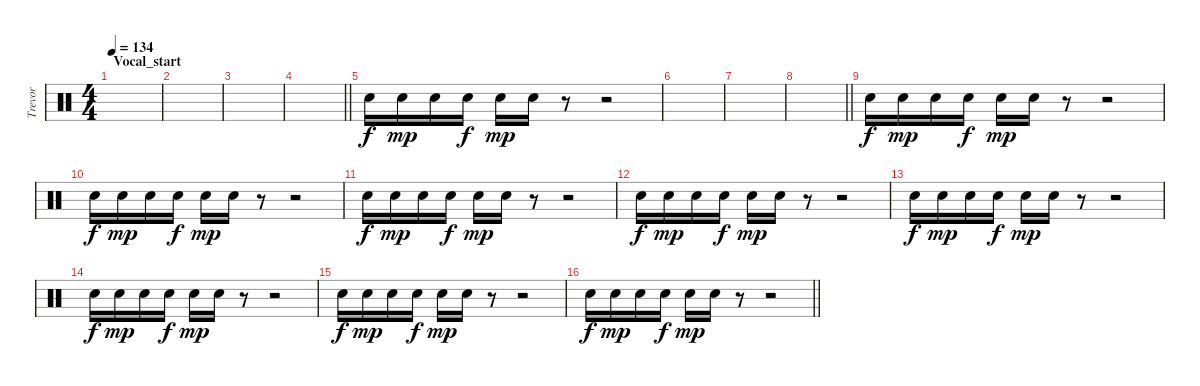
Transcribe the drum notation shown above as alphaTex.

\track ("Trevor" "Trevor") {instrument percussion}
\staff {score}
\articulation defaults
\ts (4 4)
\section ("" "Vocal_start")
\tempo 134
\clef neutral
\ks c
|
|
|
\barLineRight lightlight
|
"Snare (hit) 2".16{dy f} "Snare (hit) 2".16{dy mp} "Snare (hit) 2".16 "Snare (hit) 2".16{dy f} "Snare (hit) 2".16{dy mp} "Snare (hit) 2".16 r.8 r.2 |
|
|
\barLineRight lightlight
|
\section ("" "")
"Snare (hit) 2".16{dy f} "Snare (hit) 2".16{dy mp} "Snare (hit) 2".16 "Snare (hit) 2".16{dy f} "Snare (hit) 2".16{dy mp} "Snare (hit) 2".16 r.8 r.2 |
"Snare (hit) 2".16{dy f} "Snare (hit) 2".16{dy mp} "Snare (hit) 2".16 "Snare (hit) 2".16{dy f} "Snare (hit) 2".16{dy mp} "Snare (hit) 2".16 r.8 r.2 |
"Snare (hit) 2".16{dy f} "Snare (hit) 2".16{dy mp} "Snare (hit) 2".16 "Snare (hit) 2".16{dy f} "Snare (hit) 2".16{dy mp} "Snare (hit) 2".16 r.8 r.2 |
"Snare (hit) 2".16{dy f} "Snare (hit) 2".16{dy mp} "Snare (hit) 2".16 "Snare (hit) 2".16{dy f} "Snare (hit) 2".16{dy mp} "Snare (hit) 2".16 r.8 r.2 |
"Snare (hit) 2".16{dy f} "Snare (hit) 2".16{dy mp} "Snare (hit) 2".16 "Snare (hit) 2".16{dy f} "Snare (hit) 2".16{dy mp} "Snare (hit) 2".16 r.8 r.2 |
"Snare (hit) 2".16{dy f} "Snare (hit) 2".16{dy mp} "Snare (hit) 2".16 "Snare (hit) 2".16{dy f} "Snare (hit) 2".16{dy mp} "Snare (hit) 2".16 r.8 r.2 |
"Snare (hit) 2".16{dy f} "Snare (hit) 2".16{dy mp} "Snare (hit) 2".16 "Snare (hit) 2".16{dy f} "Snare (hit) 2".16{dy mp} "Snare (hit) 2".16 r.8 r.2 |
\barLineRight lightlight "Snare (hit) 2".16{dy f} "Snare (hit) 2".16{dy mp} "Snare (hit) 2".16 "Snare (hit) 2".16{dy f} "Snare (hit) 2".16{dy mp} "Snare (hit) 2".16
r.8 r.2
